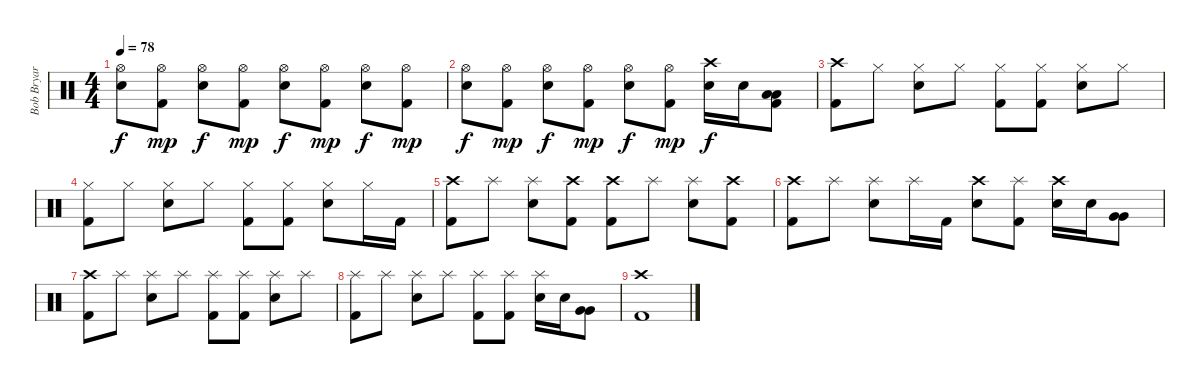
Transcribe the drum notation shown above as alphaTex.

\track ("Bob Bryar (drums)" "Bob Bryar ") {instrument percussion}
\staff {score}
\articulation defaults
\ts (4 4)
\tempo 78
\clef neutral
\ks c
("Hi-Hat (open)" "Electric Snare (hit)").8{dy f} ("Hi-Hat (open)" "Kick (hit) 2").8{dy mp} ("Hi-Hat (open)" "Electric Snare (hit)").8{dy f} ("Hi-Hat (open)" "Kick (hit) 2").8{dy mp} ("Hi-Hat (open)" "Electric Snare (hit)").8{dy f} ("Hi-Hat (open)" "Kick (hit) 2").8{dy mp} ("Hi-Hat (open)" "Electric Snare (hit)").8{dy f} ("Hi-Hat (open)" "Kick (hit) 2").8{dy mp} |
("Hi-Hat (open)" "Electric Snare (hit)").8{dy f} ("Hi-Hat (open)" "Kick (hit) 2").8{dy mp} ("Hi-Hat (open)" "Electric Snare (hit)").8{dy f} ("Hi-Hat (open)" "Kick (hit) 2").8{dy mp} ("Hi-Hat (open)" "Electric Snare (hit)").8{dy f} ("Hi-Hat (open)" "Kick (hit) 2").8{dy mp} ("Crash high (hit)" "Electric Snare (hit)").16{dy f} "Electric Snare (hit)".16 ("Low Floor Tom (hit)" "Low Floor Tom (hit)" "Kick (hit) 2").8 |
("Crash high (hit)" "Kick (hit) 2").8 "Hi-Hat (closed)".8 ("Hi-Hat (closed)" "Electric Snare (hit)").8 "Hi-Hat (closed)".8 ("Hi-Hat (closed)" "Kick (hit) 2").8 ("Hi-Hat (closed)" "Kick (hit) 2").8 ("Hi-Hat (closed)" "Electric Snare (hit)").8 "Hi-Hat (closed)".8 |
("Hi-Hat (closed)" "Kick (hit) 2").8 "Hi-Hat (closed)".8 ("Hi-Hat (closed)" "Electric Snare (hit)").8 "Hi-Hat (closed)".8 ("Hi-Hat (closed)" "Kick (hit) 2").8 ("Hi-Hat (closed)" "Kick (hit) 2").8 ("Hi-Hat (closed)" "Electric Snare (hit)").8 "Hi-Hat (closed)".16 "Kick (hit) 2".16 |
("Crash high (hit)" "Kick (hit) 2").8 "Splash (hit)".8 ("Splash (hit)" "Electric Snare (hit)").8 ("Crash high (hit)" "Kick (hit) 2").8 ("Crash high (hit)" "Kick (hit) 2").8 "Splash (hit)".8 ("Splash (hit)" "Electric Snare (hit)").8 ("Crash high (hit)" "Kick (hit) 2").8 |
("Crash high (hit)" "Kick (hit) 2").8 "Splash (hit)".8 ("Splash (hit)" "Electric Snare (hit)").8 "Splash (hit)".16 "Kick (hit) 2".16 ("Crash high (hit)" "Electric Snare (hit)").8 ("Splash (hit)" "Kick (hit) 2").8 ("Crash high (hit)" "Electric Snare (hit)").16 "Electric Snare (hit)".16 ("Very Low Tom (hit)" "Very Low Tom (hit)").8 |
("Crash high (hit)" "Kick (hit) 2").8 "Splash (hit)".8 ("Splash (hit)" "Electric Snare (hit)").8 "Splash (hit)".8 ("Splash (hit)" "Kick (hit) 2").8 ("Splash (hit)" "Kick (hit) 2").8 ("Splash (hit)" "Electric Snare (hit)").8 "Splash (hit)".8 |
("Splash (hit)" "Kick (hit) 2").8 "Splash (hit)".8 ("Splash (hit)" "Electric Snare (hit)").8 "Splash (hit)".8 ("Splash (hit)" "Kick (hit) 2").8 ("Splash (hit)" "Kick (hit) 2").8 ("Splash (hit)" "Electric Snare (hit)").16 "Electric Snare (hit)".16 ("Very Low Tom (hit)" "Very Low Tom (hit)").8 |
("Crash high (hit)" "Kick (hit) 2").1
